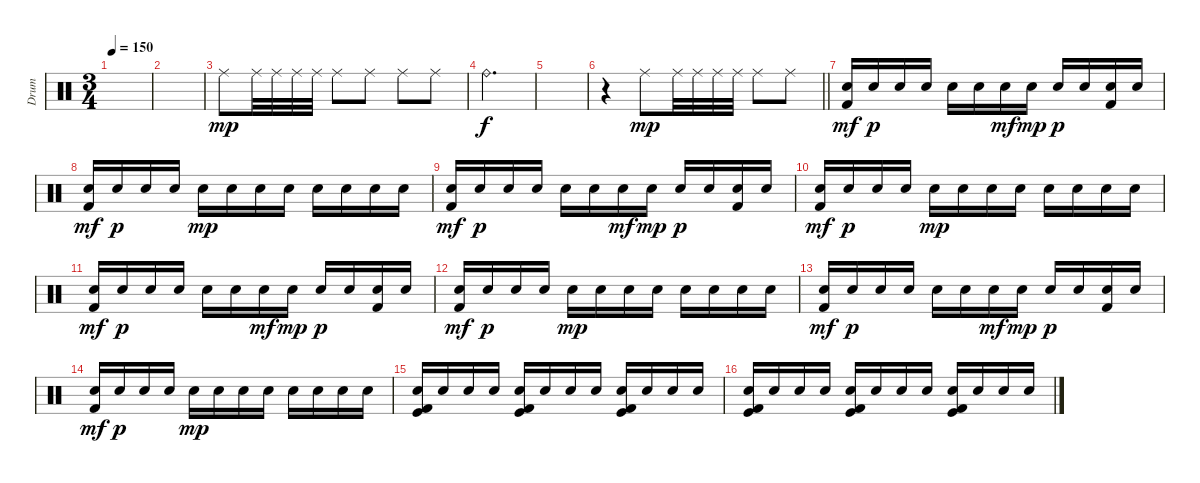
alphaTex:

\track ("Drum" "Drum") {instrument percussion}
\staff {score}
\articulation defaults
\ts (3 4)
\tempo 150
\clef neutral
\ks c
|
|
"Ride (middle)".8{dy mp} "Ride (middle)".32 "Ride (middle)".32 "Ride (middle)".32 "Ride (middle)".32 "Ride (middle)".8 "Ride (middle)".8 "Ride (middle)".8 "Ride (middle)".8 |
"Ride (bell)".2{d dy f} |
|
\barLineRight lightlight
r.4 "Ride (middle)".8{dy mp} "Ride (middle)".32 "Ride (middle)".32 "Ride (middle)".32 "Ride (middle)".32 "Ride (middle)".8 "Ride (middle)".8 |
("Electric Snare (hit)" "Kick (hit) 2").16{dy mf} "Electric Snare (hit)".16{dy p} "Electric Snare (hit)".16 "Electric Snare (hit)".16 "Electric Snare (hit)".16 "Electric Snare (hit)".16 "Electric Snare (hit)".16{dy mf} "Electric Snare (hit)".16{dy mp} "Electric Snare (hit)".16{dy p} "Electric Snare (hit)".16 ("Electric Snare (hit)" "Kick (hit) 2").16 "Electric Snare (hit)".16 |
("Electric Snare (hit)" "Kick (hit) 2").16{dy mf} "Electric Snare (hit)".16{dy p} "Electric Snare (hit)".16 "Electric Snare (hit)".16 "Electric Snare (hit)".16{dy mp} "Electric Snare (hit)".16 "Electric Snare (hit)".16 "Electric Snare (hit)".16 "Electric Snare (hit)".16 "Electric Snare (hit)".16 "Electric Snare (hit)".16 "Electric Snare (hit)".16 |
("Electric Snare (hit)" "Kick (hit) 2").16{dy mf} "Electric Snare (hit)".16{dy p} "Electric Snare (hit)".16 "Electric Snare (hit)".16 "Electric Snare (hit)".16 "Electric Snare (hit)".16 "Electric Snare (hit)".16{dy mf} "Electric Snare (hit)".16{dy mp} "Electric Snare (hit)".16{dy p} "Electric Snare (hit)".16 ("Electric Snare (hit)" "Kick (hit) 2").16 "Electric Snare (hit)".16 |
("Electric Snare (hit)" "Kick (hit) 2").16{dy mf} "Electric Snare (hit)".16{dy p} "Electric Snare (hit)".16 "Electric Snare (hit)".16 "Electric Snare (hit)".16{dy mp} "Electric Snare (hit)".16 "Electric Snare (hit)".16 "Electric Snare (hit)".16 "Electric Snare (hit)".16 "Electric Snare (hit)".16 "Electric Snare (hit)".16 "Electric Snare (hit)".16 |
("Electric Snare (hit)" "Kick (hit) 2").16{dy mf} "Electric Snare (hit)".16{dy p} "Electric Snare (hit)".16 "Electric Snare (hit)".16 "Electric Snare (hit)".16 "Electric Snare (hit)".16 "Electric Snare (hit)".16{dy mf} "Electric Snare (hit)".16{dy mp} "Electric Snare (hit)".16{dy p} "Electric Snare (hit)".16 ("Electric Snare (hit)" "Kick (hit) 2").16 "Electric Snare (hit)".16 |
("Electric Snare (hit)" "Kick (hit) 2").16{dy mf} "Electric Snare (hit)".16{dy p} "Electric Snare (hit)".16 "Electric Snare (hit)".16 "Electric Snare (hit)".16{dy mp} "Electric Snare (hit)".16 "Electric Snare (hit)".16 "Electric Snare (hit)".16 "Electric Snare (hit)".16 "Electric Snare (hit)".16 "Electric Snare (hit)".16 "Electric Snare (hit)".16 |
("Electric Snare (hit)" "Kick (hit) 2").16{dy mf} "Electric Snare (hit)".16{dy p} "Electric Snare (hit)".16 "Electric Snare (hit)".16 "Electric Snare (hit)".16 "Electric Snare (hit)".16 "Electric Snare (hit)".16{dy mf} "Electric Snare (hit)".16{dy mp} "Electric Snare (hit)".16{dy p} "Electric Snare (hit)".16 ("Electric Snare (hit)" "Kick (hit) 2").16 "Electric Snare (hit)".16 |
("Electric Snare (hit)" "Kick (hit) 2").16{dy mf} "Electric Snare (hit)".16{dy p} "Electric Snare (hit)".16 "Electric Snare (hit)".16 "Electric Snare (hit)".16{dy mp} "Electric Snare (hit)".16 "Electric Snare (hit)".16 "Electric Snare (hit)".16 "Electric Snare (hit)".16 "Electric Snare (hit)".16 "Electric Snare (hit)".16 "Electric Snare (hit)".16 |
("Electric Snare (hit)" "Kick (hit)" "Kick (hit) 2").16 "Electric Snare (hit)".16 "Electric Snare (hit)".16 "Electric Snare (hit)".16 ("Electric Snare (hit)" "Kick (hit)" "Kick (hit) 2").16 "Electric Snare (hit)".16 "Electric Snare (hit)".16 "Electric Snare (hit)".16 ("Electric Snare (hit)" "Kick (hit)" "Kick (hit) 2").16 "Electric Snare (hit)".16 "Electric Snare (hit)".16 "Electric Snare (hit)".16 |
("Electric Snare (hit)" "Kick (hit)" "Kick (hit) 2").16 "Electric Snare (hit)".16 "Electric Snare (hit)".16 "Electric Snare (hit)".16 ("Electric Snare (hit)" "Kick (hit)" "Kick (hit) 2").16 "Electric Snare (hit)".16 "Electric Snare (hit)".16 "Electric Snare (hit)".16 ("Electric Snare (hit)" "Kick (hit)" "Kick (hit) 2").16 "Electric Snare (hit)".16 "Electric Snare (hit)".16 "Electric Snare (hit)".16
